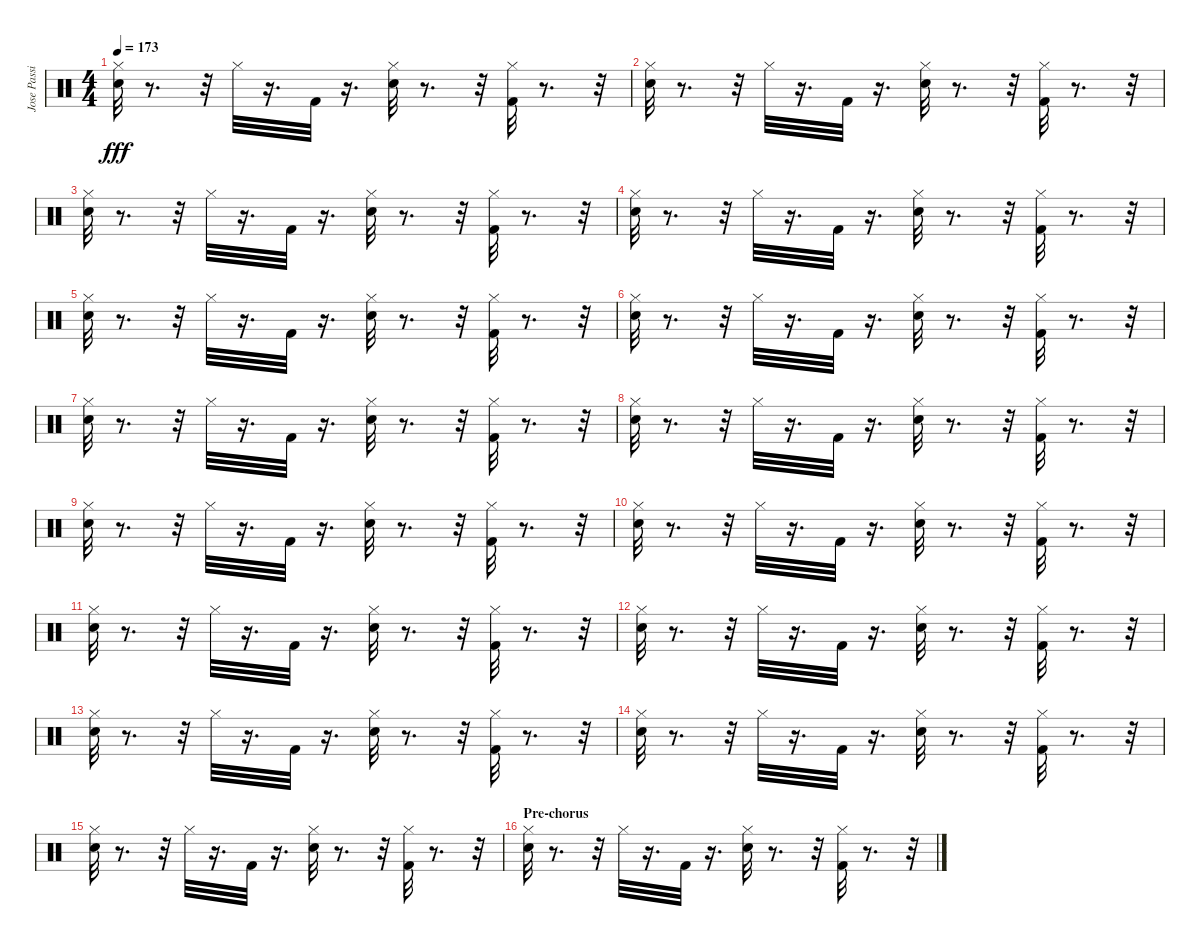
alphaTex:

\track ("Jose Passilas-Drums" "Jose Passi") {instrument percussion}
\staff {score}
\articulation defaults
\ts (4 4)
\tempo 173
\clef neutral
\ks c
("Electric Snare (hit)" "Hi-Hat (closed)").32{dy fff} r.8{d} r.32 "Hi-Hat (closed)".32 r.16{d} "Kick (hit) 2".32 r.16{d} ("Electric Snare (hit)" "Hi-Hat (closed)").32 r.8{d} r.32 ("Kick (hit) 2" "Hi-Hat (closed)").32 r.8{d} r.32 |
("Electric Snare (hit)" "Hi-Hat (closed)").32 r.8{d} r.32 "Hi-Hat (closed)".32 r.16{d} "Kick (hit) 2".32 r.16{d} ("Electric Snare (hit)" "Hi-Hat (closed)").32 r.8{d} r.32 ("Hi-Hat (closed)" "Kick (hit) 2").32 r.8{d} r.32 |
("Electric Snare (hit)" "Hi-Hat (closed)").32 r.8{d} r.32 "Hi-Hat (closed)".32 r.16{d} "Kick (hit) 2".32 r.16{d} ("Electric Snare (hit)" "Hi-Hat (closed)").32 r.8{d} r.32 ("Kick (hit) 2" "Hi-Hat (closed)").32 r.8{d} r.32 |
("Electric Snare (hit)" "Hi-Hat (closed)").32 r.8{d} r.32 "Hi-Hat (closed)".32 r.16{d} "Kick (hit) 2".32 r.16{d} ("Electric Snare (hit)" "Hi-Hat (closed)").32 r.8{d} r.32 ("Kick (hit) 2" "Hi-Hat (closed)").32 r.8{d} r.32 |
("Hi-Hat (closed)" "Electric Snare (hit)").32 r.8{d} r.32 "Hi-Hat (closed)".32 r.16{d} "Kick (hit) 2".32 r.16{d} ("Hi-Hat (closed)" "Electric Snare (hit)").32 r.8{d} r.32 ("Hi-Hat (closed)" "Kick (hit) 2").32 r.8{d} r.32 |
("Hi-Hat (closed)" "Electric Snare (hit)").32 r.8{d} r.32 "Hi-Hat (closed)".32 r.16{d} "Kick (hit) 2".32 r.16{d} ("Hi-Hat (closed)" "Electric Snare (hit)").32 r.8{d} r.32 ("Kick (hit) 2" "Hi-Hat (closed)").32 r.8{d} r.32 |
("Hi-Hat (closed)" "Electric Snare (hit)").32 r.8{d} r.32 "Hi-Hat (closed)".32 r.16{d} "Kick (hit) 2".32 r.16{d} ("Hi-Hat (closed)" "Electric Snare (hit)").32 r.8{d} r.32 ("Hi-Hat (closed)" "Kick (hit) 2").32 r.8{d} r.32 |
("Hi-Hat (closed)" "Electric Snare (hit)").32 r.8{d} r.32 "Hi-Hat (closed)".32 r.16{d} "Kick (hit) 2".32 r.16{d} ("Hi-Hat (closed)" "Electric Snare (hit)").32 r.8{d} r.32 ("Hi-Hat (closed)" "Kick (hit) 2").32 r.8{d} r.32 |
("Electric Snare (hit)" "Hi-Hat (closed)").32 r.8{d} r.32 "Hi-Hat (closed)".32 r.16{d} "Kick (hit) 2".32 r.16{d} ("Electric Snare (hit)" "Hi-Hat (closed)").32 r.8{d} r.32 ("Kick (hit) 2" "Hi-Hat (closed)").32 r.8{d} r.32 |
("Electric Snare (hit)" "Hi-Hat (closed)").32 r.8{d} r.32 "Hi-Hat (closed)".32 r.16{d} "Kick (hit) 2".32 r.16{d} ("Electric Snare (hit)" "Hi-Hat (closed)").32 r.8{d} r.32 ("Hi-Hat (closed)" "Kick (hit) 2").32 r.8{d} r.32 |
("Electric Snare (hit)" "Hi-Hat (closed)").32 r.8{d} r.32 "Hi-Hat (closed)".32 r.16{d} "Kick (hit) 2".32 r.16{d} ("Electric Snare (hit)" "Hi-Hat (closed)").32 r.8{d} r.32 ("Kick (hit) 2" "Hi-Hat (closed)").32 r.8{d} r.32 |
("Electric Snare (hit)" "Hi-Hat (closed)").32 r.8{d} r.32 "Hi-Hat (closed)".32 r.16{d} "Kick (hit) 2".32 r.16{d} ("Electric Snare (hit)" "Hi-Hat (closed)").32 r.8{d} r.32 ("Hi-Hat (closed)" "Kick (hit) 2").32 r.8{d} r.32 |
("Electric Snare (hit)" "Hi-Hat (closed)").32 r.8{d} r.32 "Hi-Hat (closed)".32 r.16{d} "Kick (hit) 2".32 r.16{d} ("Electric Snare (hit)" "Hi-Hat (closed)").32 r.8{d} r.32 ("Kick (hit) 2" "Hi-Hat (closed)").32 r.8{d} r.32 |
("Electric Snare (hit)" "Hi-Hat (closed)").32 r.8{d} r.32 "Hi-Hat (closed)".32 r.16{d} "Kick (hit) 2".32 r.16{d} ("Electric Snare (hit)" "Hi-Hat (closed)").32 r.8{d} r.32 ("Kick (hit) 2" "Hi-Hat (closed)").32 r.8{d} r.32 |
("Hi-Hat (closed)" "Electric Snare (hit)").32 r.8{d} r.32 "Hi-Hat (closed)".32 r.16{d} "Kick (hit) 2".32 r.16{d} ("Hi-Hat (closed)" "Electric Snare (hit)").32 r.8{d} r.32 ("Hi-Hat (closed)" "Kick (hit) 2").32 r.8{d} r.32 |
\section ("" "Pre-chorus")
("Hi-Hat (closed)" "Electric Snare (hit)").32 r.8{d} r.32 "Hi-Hat (closed)".32 r.16{d} "Kick (hit) 2".32 r.16{d} ("Hi-Hat (closed)" "Electric Snare (hit)").32 r.8{d} r.32 ("Kick (hit) 2" "Hi-Hat (closed)").32 r.8{d} r.32
